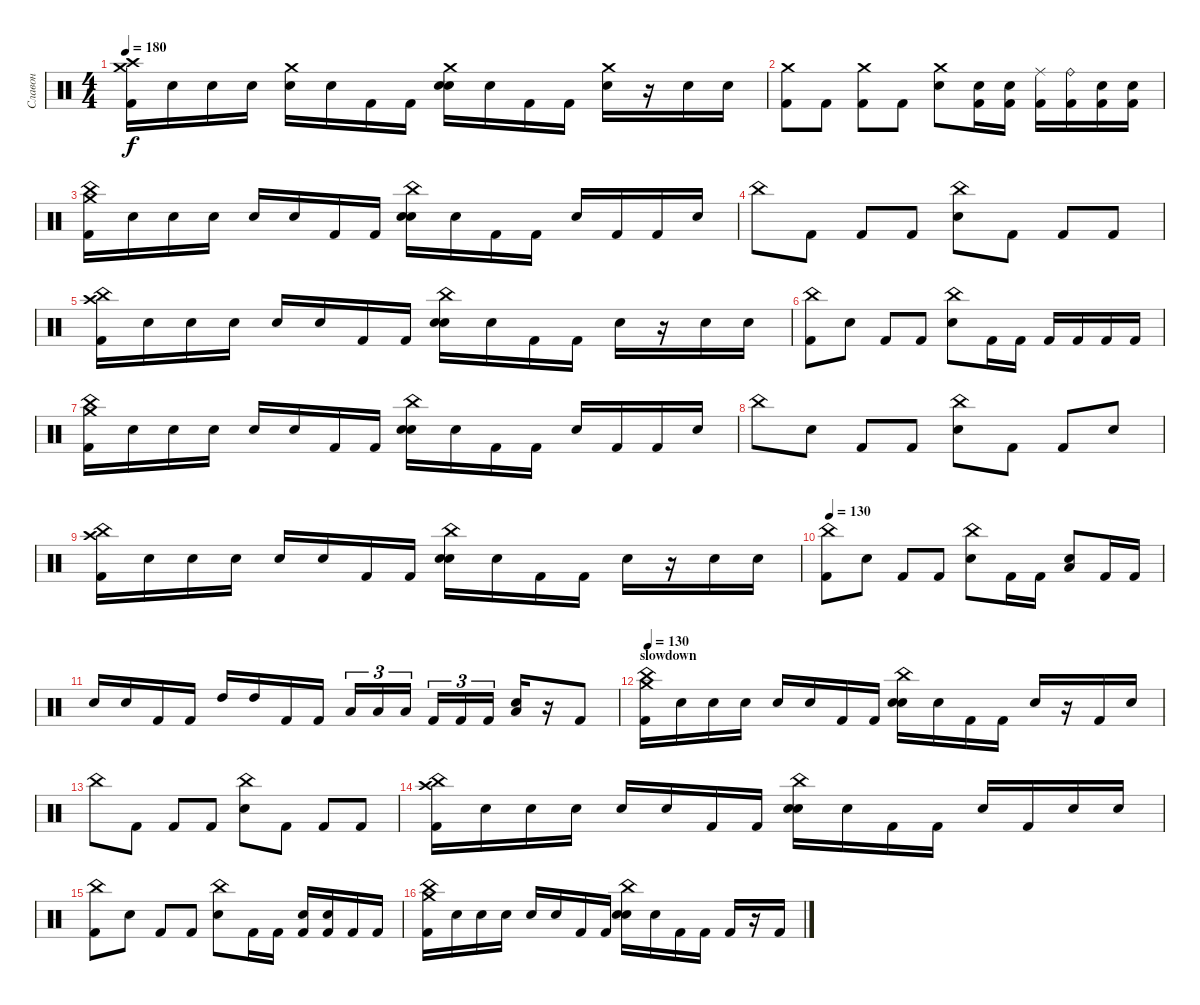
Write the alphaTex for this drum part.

\track ("Славон" "Славон") {instrument percussion}
\staff {score}
\articulation defaults
\ts (4 4)
\tempo 180
\clef neutral
\ks c
("Crash high (hit)" "Crash medium (hit)" "Kick (hit) 2").16{dy f} "Snare (hit)".16 "Snare (hit)".16 "Snare (hit)".16 ("Crash medium (hit)" "Snare (hit)").16 "Snare (hit)".16 "Kick (hit) 2".16 "Kick (hit) 2".16 ("Crash medium (hit)" "Electric Snare (hit)" "Snare (hit)").16 "Snare (hit)".16 "Kick (hit) 2".16 "Kick (hit) 2".16 ("Crash medium (hit)" "Snare (hit)").16 r.16 "Electric Snare (hit)".16 "Snare (hit)".16 |
("Crash medium (hit)" "Kick (hit) 2").8 "Kick (hit) 2".8 ("Crash medium (hit)" "Kick (hit) 2").8 "Kick (hit) 2".8 ("Crash medium (hit)" "Electric Snare (hit)").8 ("Electric Snare (hit)" "Kick (hit) 2").16 ("Electric Snare (hit)" "Kick (hit) 2").16 ("Ride (middle)" "Kick (hit) 2").16 ("Ride (bell)" "Kick (hit) 2").16 ("Electric Snare (hit)" "Kick (hit) 2").16 ("Electric Snare (hit)" "Kick (hit) 2").16 |
("China (hit)" "Crash medium (hit)" "Kick (hit) 2").16 "Snare (hit)".16 "Snare (hit)".16 "Snare (hit)".16 "Snare (hit)".16 "Snare (hit)".16 "Kick (hit) 2".16 "Kick (hit) 2".16 ("China (hit)" "Electric Snare (hit)" "Snare (hit)").16 "Snare (hit)".16 "Kick (hit) 2".16 "Kick (hit) 2".16 "Snare (hit)".16 "Kick (hit) 2".16 "Kick (hit) 2".16 "Snare (hit)".16 |
"China (hit)".8 "Kick (hit) 2".8 "Kick (hit) 2".8 "Kick (hit) 2".8 ("China (hit)" "Electric Snare (hit)").8 "Kick (hit) 2".8 "Kick (hit) 2".8 "Kick (hit) 2".8 |
("Crash high (hit)" "China (hit)" "Kick (hit) 2").16 "Snare (hit)".16 "Snare (hit)".16 "Snare (hit)".16 "Snare (hit)".16 "Snare (hit)".16 "Kick (hit) 2".16 "Kick (hit) 2".16 ("China (hit)" "Electric Snare (hit)" "Snare (hit)").16 "Snare (hit)".16 "Kick (hit) 2".16 "Kick (hit) 2".16 "Snare (hit)".16 r.16 "Electric Snare (hit)".16 "Snare (hit)".16 |
("China (hit)" "Kick (hit) 2").8 "Electric Snare (hit)".8 "Kick (hit) 2".8 "Kick (hit) 2".8 ("China (hit)" "Electric Snare (hit)").8 "Kick (hit) 2".16 "Kick (hit) 2".16 "Kick (hit) 2".16 "Kick (hit) 2".16 "Kick (hit) 2".16 "Kick (hit) 2".16 |
("China (hit)" "Crash medium (hit)" "Kick (hit) 2").16 "Snare (hit)".16 "Snare (hit)".16 "Snare (hit)".16 "Snare (hit)".16 "Snare (hit)".16 "Kick (hit) 2".16 "Kick (hit) 2".16 ("China (hit)" "Electric Snare (hit)" "Snare (hit)").16 "Snare (hit)".16 "Kick (hit) 2".16 "Kick (hit) 2".16 "Snare (hit)".16 "Kick (hit) 2".16 "Kick (hit) 2".16 "Snare (hit)".16 |
"China (hit)".8 "Electric Snare (hit)".8 "Kick (hit) 2".8 "Kick (hit) 2".8 ("China (hit)" "Electric Snare (hit)").8 "Kick (hit) 2".8 "Kick (hit) 2".8 "Electric Snare (hit)".8 |
("Crash high (hit)" "China (hit)" "Kick (hit) 2").16 "Snare (hit)".16 "Snare (hit)".16 "Snare (hit)".16 "Snare (hit)".16 "Snare (hit)".16 "Kick (hit) 2".16 "Kick (hit) 2".16 ("China (hit)" "Electric Snare (hit)" "Snare (hit)").16 "Snare (hit)".16 "Kick (hit) 2".16 "Kick (hit) 2".16 "Snare (hit)".16 r.16 "Electric Snare (hit)".16 "Snare (hit)".16 |
\tempo 130
("China (hit)" "Kick (hit) 2").8 "Electric Snare (hit)".8 "Kick (hit) 2".8 "Kick (hit) 2".8 ("China (hit)" "Electric Snare (hit)").8 "Kick (hit) 2".16 "Kick (hit) 2".16 ("Electric Snare (hit)" "Low Tom (hit)").8 "Kick (hit) 2".16 "Kick (hit) 2".16 |
"Electric Snare (hit)".16 "Electric Snare (hit)".16 "Kick (hit) 2".16 "Kick (hit) 2".16 "High Tom (hit)".16 "High Tom (hit)".16 "Kick (hit) 2".16 "Kick (hit) 2".16 "Low Tom (hit)".16{tu (3 2)} "Low Tom (hit)".16{tu (3 2)} "Low Tom (hit)".16{tu (3 2)} "Kick (hit) 2".16{tu (3 2)} "Kick (hit) 2".16{tu (3 2)} "Kick (hit) 2".16{tu (3 2)} ("Low Tom (hit)" "Electric Snare (hit)").16 r.16 "Kick (hit) 2".8 |
\section ("" "slowdown")
\tempo 130
("China (hit)" "Crash medium (hit)" "Kick (hit) 2").16 "Snare (hit)".16 "Snare (hit)".16 "Snare (hit)".16 "Snare (hit)".16 "Snare (hit)".16 "Kick (hit) 2".16 "Kick (hit) 2".16 ("China (hit)" "Electric Snare (hit)" "Snare (hit)").16 "Snare (hit)".16 "Kick (hit) 2".16 "Kick (hit) 2".16 "Snare (hit)".16 r.16 "Kick (hit) 2".16 "Snare (hit)".16 |
"China (hit)".8 "Kick (hit) 2".8 "Kick (hit) 2".8 "Kick (hit) 2".8 ("China (hit)" "Electric Snare (hit)").8 "Kick (hit) 2".8 "Kick (hit) 2".8 "Kick (hit) 2".8 |
("Crash high (hit)" "China (hit)" "Kick (hit) 2").16 "Snare (hit)".16 "Snare (hit)".16 "Snare (hit)".16 "Snare (hit)".16 "Snare (hit)".16 "Kick (hit) 2".16 "Kick (hit) 2".16 ("China (hit)" "Electric Snare (hit)" "Snare (hit)").16 "Snare (hit)".16 "Kick (hit) 2".16 "Kick (hit) 2".16 "Snare (hit)".16 "Kick (hit) 2".16 "Electric Snare (hit)".16 "Snare (hit)".16 |
("China (hit)" "Kick (hit) 2").8 "Electric Snare (hit)".8 "Kick (hit) 2".8 "Kick (hit) 2".8 ("China (hit)" "Electric Snare (hit)").8 "Kick (hit) 2".16 "Kick (hit) 2".16 ("Electric Snare (hit)" "Kick (hit) 2").16 ("Electric Snare (hit)" "Kick (hit) 2").16 "Kick (hit) 2".16 "Kick (hit) 2".16 |
("China (hit)" "Crash medium (hit)" "Kick (hit) 2").16 "Snare (hit)".16 "Snare (hit)".16 "Snare (hit)".16 "Snare (hit)".16 "Snare (hit)".16 "Kick (hit) 2".16 "Kick (hit) 2".16 ("China (hit)" "Electric Snare (hit)" "Snare (hit)").16 "Snare (hit)".16 "Kick (hit) 2".16 "Kick (hit) 2".16 "Kick (hit) 2".16 r.16 "Kick (hit) 2".16
